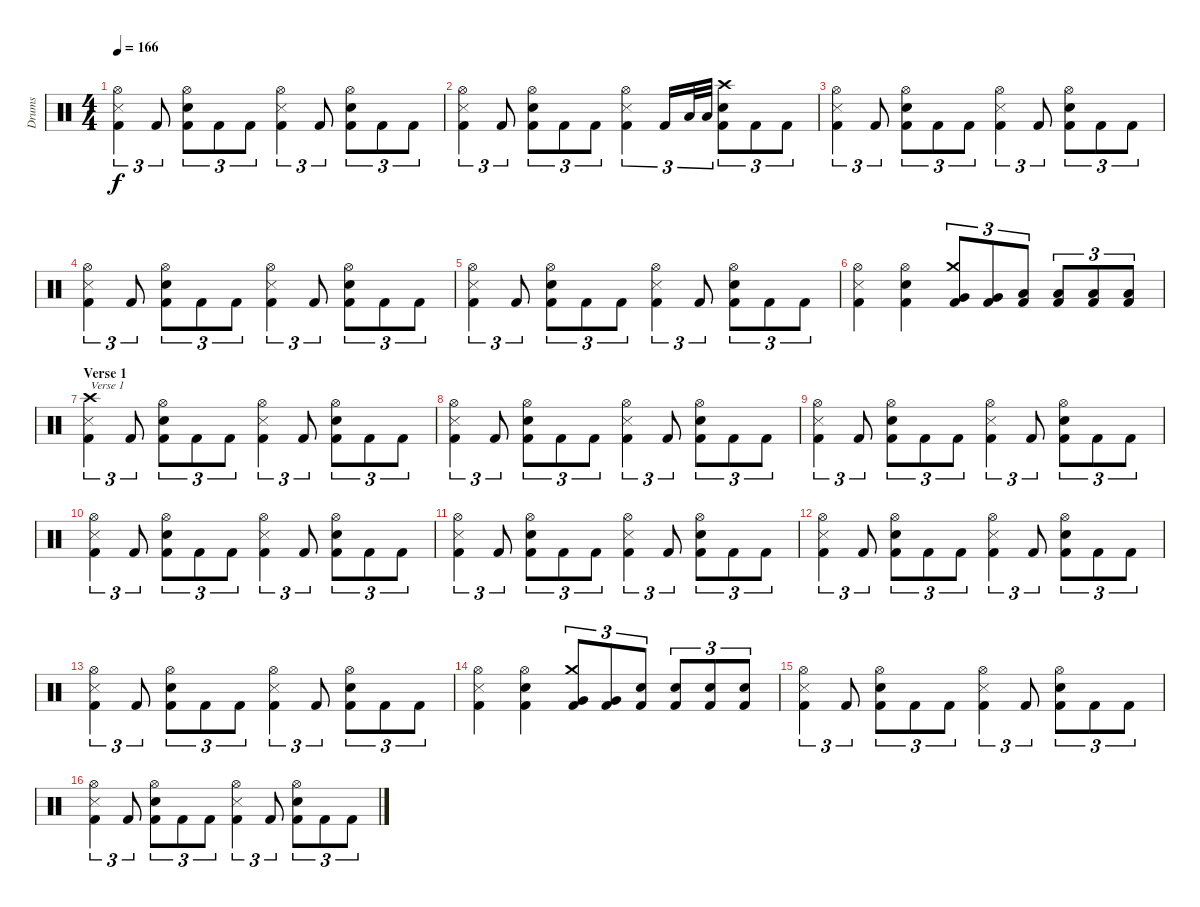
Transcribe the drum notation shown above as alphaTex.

\track ("Drums" "Drums") {instrument percussion}
\staff {score}
\articulation defaults
\ts (4 4)
\tempo 166
\clef neutral
\ks c
("Hi-Hat (open)" "Snare (side stick) 3" "Kick (hit) 2").4{tu (3 2) dy f} "Kick (hit) 2".8{tu (3 2)} ("Hi-Hat (open)" "Electric Snare (hit)" "Kick (hit) 2").8{tu (3 2)} "Kick (hit) 2".8{tu (3 2)} "Kick (hit) 2".8{tu (3 2)} ("Hi-Hat (open)" "Snare (side stick) 3" "Kick (hit) 2").4{tu (3 2)} "Kick (hit) 2".8{tu (3 2)} ("Hi-Hat (open)" "Electric Snare (hit)" "Kick (hit) 2").8{tu (3 2)} "Kick (hit) 2".8{tu (3 2)} "Kick (hit) 2".8{tu (3 2)} |
("Hi-Hat (open)" "Snare (side stick) 3" "Kick (hit) 2").4{tu (3 2)} "Kick (hit) 2".8{tu (3 2)} ("Hi-Hat (open)" "Electric Snare (hit)" "Kick (hit) 2").8{tu (3 2)} "Kick (hit) 2".8{tu (3 2)} "Kick (hit) 2".8{tu (3 2)} ("Hi-Hat (open)" "Snare (side stick) 3" "Kick (hit) 2").4{tu (3 2)} "Kick (hit) 2".16{tu (3 2)} "Low Tom (hit)".32{tu (3 2)} "Low Tom (hit)".32{tu (3 2)} ("Crash high (hit)" "Electric Snare (hit)" "Kick (hit) 2").8{tu (3 2)} "Kick (hit) 2".8{tu (3 2)} "Kick (hit) 2".8{tu (3 2)} |
("Hi-Hat (open)" "Snare (side stick) 3" "Kick (hit) 2").4{tu (3 2)} "Kick (hit) 2".8{tu (3 2)} ("Hi-Hat (open)" "Electric Snare (hit)" "Kick (hit) 2").8{tu (3 2)} "Kick (hit) 2".8{tu (3 2)} "Kick (hit) 2".8{tu (3 2)} ("Hi-Hat (open)" "Snare (side stick) 3" "Kick (hit) 2").4{tu (3 2)} "Kick (hit) 2".8{tu (3 2)} ("Hi-Hat (open)" "Electric Snare (hit)" "Kick (hit) 2").8{tu (3 2)} "Kick (hit) 2".8{tu (3 2)} "Kick (hit) 2".8{tu (3 2)} |
("Hi-Hat (open)" "Snare (side stick) 3" "Kick (hit) 2").4{tu (3 2)} "Kick (hit) 2".8{tu (3 2)} ("Hi-Hat (open)" "Electric Snare (hit)" "Kick (hit) 2").8{tu (3 2)} "Kick (hit) 2".8{tu (3 2)} "Kick (hit) 2".8{tu (3 2)} ("Hi-Hat (open)" "Snare (side stick) 3" "Kick (hit) 2").4{tu (3 2)} "Kick (hit) 2".8{tu (3 2)} ("Hi-Hat (open)" "Electric Snare (hit)" "Kick (hit) 2").8{tu (3 2)} "Kick (hit) 2".8{tu (3 2)} "Kick (hit) 2".8{tu (3 2)} |
("Hi-Hat (open)" "Snare (side stick) 3" "Kick (hit) 2").4{tu (3 2)} "Kick (hit) 2".8{tu (3 2)} ("Hi-Hat (open)" "Electric Snare (hit)" "Kick (hit) 2").8{tu (3 2)} "Kick (hit) 2".8{tu (3 2)} "Kick (hit) 2".8{tu (3 2)} ("Hi-Hat (open)" "Snare (side stick) 3" "Kick (hit) 2").4{tu (3 2)} "Kick (hit) 2".8{tu (3 2)} ("Hi-Hat (open)" "Electric Snare (hit)" "Kick (hit) 2").8{tu (3 2)} "Kick (hit) 2".8{tu (3 2)} "Kick (hit) 2".8{tu (3 2)} |
("Hi-Hat (open)" "Snare (side stick) 3" "Kick (hit) 2").4 ("Hi-Hat (open)" "Electric Snare (hit)" "Kick (hit) 2").4 ("Crash medium (hit)" "Very Low Tom (hit)" "Kick (hit) 2").8{tu (3 2)} ("Very Low Tom (hit)" "Kick (hit) 2").8{tu (3 2)} ("Low Tom (hit)" "Kick (hit) 2").8{tu (3 2)} ("Low Tom (hit)" "Kick (hit) 2").8{tu (3 2)} ("Low Tom (hit)" "Kick (hit) 2").8{tu (3 2)} ("Low Tom (hit)" "Kick (hit) 2").8{tu (3 2)} |
\section ("" "Verse 1")
("Crash high (hit)" "Snare (side stick) 3" "Kick (hit) 2").4{tu (3 2) txt "Verse 1"} "Kick (hit) 2".8{tu (3 2)} ("Hi-Hat (open)" "Electric Snare (hit)" "Kick (hit) 2").8{tu (3 2)} "Kick (hit) 2".8{tu (3 2)} "Kick (hit) 2".8{tu (3 2)} ("Hi-Hat (open)" "Snare (side stick) 3" "Kick (hit) 2").4{tu (3 2)} "Kick (hit) 2".8{tu (3 2)} ("Hi-Hat (open)" "Electric Snare (hit)" "Kick (hit) 2").8{tu (3 2)} "Kick (hit) 2".8{tu (3 2)} "Kick (hit) 2".8{tu (3 2)} |
("Hi-Hat (open)" "Snare (side stick) 3" "Kick (hit) 2").4{tu (3 2)} "Kick (hit) 2".8{tu (3 2)} ("Hi-Hat (open)" "Electric Snare (hit)" "Kick (hit) 2").8{tu (3 2)} "Kick (hit) 2".8{tu (3 2)} "Kick (hit) 2".8{tu (3 2)} ("Hi-Hat (open)" "Snare (side stick) 3" "Kick (hit) 2").4{tu (3 2)} "Kick (hit) 2".8{tu (3 2)} ("Hi-Hat (open)" "Electric Snare (hit)" "Kick (hit) 2").8{tu (3 2)} "Kick (hit) 2".8{tu (3 2)} "Kick (hit) 2".8{tu (3 2)} |
("Hi-Hat (open)" "Snare (side stick) 3" "Kick (hit) 2").4{tu (3 2)} "Kick (hit) 2".8{tu (3 2)} ("Hi-Hat (open)" "Electric Snare (hit)" "Kick (hit) 2").8{tu (3 2)} "Kick (hit) 2".8{tu (3 2)} "Kick (hit) 2".8{tu (3 2)} ("Hi-Hat (open)" "Snare (side stick) 3" "Kick (hit) 2").4{tu (3 2)} "Kick (hit) 2".8{tu (3 2)} ("Hi-Hat (open)" "Electric Snare (hit)" "Kick (hit) 2").8{tu (3 2)} "Kick (hit) 2".8{tu (3 2)} "Kick (hit) 2".8{tu (3 2)} |
("Hi-Hat (open)" "Snare (side stick) 3" "Kick (hit) 2").4{tu (3 2)} "Kick (hit) 2".8{tu (3 2)} ("Hi-Hat (open)" "Electric Snare (hit)" "Kick (hit) 2").8{tu (3 2)} "Kick (hit) 2".8{tu (3 2)} "Kick (hit) 2".8{tu (3 2)} ("Hi-Hat (open)" "Snare (side stick) 3" "Kick (hit) 2").4{tu (3 2)} "Kick (hit) 2".8{tu (3 2)} ("Hi-Hat (open)" "Electric Snare (hit)" "Kick (hit) 2").8{tu (3 2)} "Kick (hit) 2".8{tu (3 2)} "Kick (hit) 2".8{tu (3 2)} |
("Hi-Hat (open)" "Snare (side stick) 3" "Kick (hit) 2").4{tu (3 2)} "Kick (hit) 2".8{tu (3 2)} ("Hi-Hat (open)" "Electric Snare (hit)" "Kick (hit) 2").8{tu (3 2)} "Kick (hit) 2".8{tu (3 2)} "Kick (hit) 2".8{tu (3 2)} ("Hi-Hat (open)" "Snare (side stick) 3" "Kick (hit) 2").4{tu (3 2)} "Kick (hit) 2".8{tu (3 2)} ("Hi-Hat (open)" "Electric Snare (hit)" "Kick (hit) 2").8{tu (3 2)} "Kick (hit) 2".8{tu (3 2)} "Kick (hit) 2".8{tu (3 2)} |
("Hi-Hat (open)" "Snare (side stick) 3" "Kick (hit) 2").4{tu (3 2)} "Kick (hit) 2".8{tu (3 2)} ("Hi-Hat (open)" "Electric Snare (hit)" "Kick (hit) 2").8{tu (3 2)} "Kick (hit) 2".8{tu (3 2)} "Kick (hit) 2".8{tu (3 2)} ("Hi-Hat (open)" "Snare (side stick) 3" "Kick (hit) 2").4{tu (3 2)} "Kick (hit) 2".8{tu (3 2)} ("Hi-Hat (open)" "Electric Snare (hit)" "Kick (hit) 2").8{tu (3 2)} "Kick (hit) 2".8{tu (3 2)} "Kick (hit) 2".8{tu (3 2)} |
("Hi-Hat (open)" "Snare (side stick) 3" "Kick (hit) 2").4{tu (3 2)} "Kick (hit) 2".8{tu (3 2)} ("Hi-Hat (open)" "Electric Snare (hit)" "Kick (hit) 2").8{tu (3 2)} "Kick (hit) 2".8{tu (3 2)} "Kick (hit) 2".8{tu (3 2)} ("Hi-Hat (open)" "Snare (side stick) 3" "Kick (hit) 2").4{tu (3 2)} "Kick (hit) 2".8{tu (3 2)} ("Hi-Hat (open)" "Electric Snare (hit)" "Kick (hit) 2").8{tu (3 2)} "Kick (hit) 2".8{tu (3 2)} "Kick (hit) 2".8{tu (3 2)} |
("Hi-Hat (open)" "Snare (side stick) 3" "Kick (hit) 2").4 ("Hi-Hat (open)" "Electric Snare (hit)" "Kick (hit) 2").4 ("Crash medium (hit)" "Very Low Tom (hit)" "Kick (hit) 2").8{tu (3 2)} ("Very Low Tom (hit)" "Kick (hit) 2").8{tu (3 2)} ("Electric Snare (hit)" "Kick (hit) 2").8{tu (3 2)} ("Electric Snare (hit)" "Kick (hit) 2").8{tu (3 2)} ("Electric Snare (hit)" "Kick (hit) 2").8{tu (3 2)} ("Electric Snare (hit)" "Kick (hit) 2").8{tu (3 2)} |
("Hi-Hat (open)" "Snare (side stick) 3" "Kick (hit) 2").4{tu (3 2)} "Kick (hit) 2".8{tu (3 2)} ("Hi-Hat (open)" "Electric Snare (hit)" "Kick (hit) 2").8{tu (3 2)} "Kick (hit) 2".8{tu (3 2)} "Kick (hit) 2".8{tu (3 2)} ("Hi-Hat (open)" "Snare (side stick) 3" "Kick (hit) 2").4{tu (3 2)} "Kick (hit) 2".8{tu (3 2)} ("Hi-Hat (open)" "Electric Snare (hit)" "Kick (hit) 2").8{tu (3 2)} "Kick (hit) 2".8{tu (3 2)} "Kick (hit) 2".8{tu (3 2)} |
("Hi-Hat (open)" "Snare (side stick) 3" "Kick (hit) 2").4{tu (3 2)} "Kick (hit) 2".8{tu (3 2)} ("Hi-Hat (open)" "Electric Snare (hit)" "Kick (hit) 2").8{tu (3 2)} "Kick (hit) 2".8{tu (3 2)} "Kick (hit) 2".8{tu (3 2)} ("Hi-Hat (open)" "Snare (side stick) 3" "Kick (hit) 2").4{tu (3 2)} "Kick (hit) 2".8{tu (3 2)} ("Hi-Hat (open)" "Electric Snare (hit)" "Kick (hit) 2").8{tu (3 2)} "Kick (hit) 2".8{tu (3 2)} "Kick (hit) 2".8{tu (3 2)}
